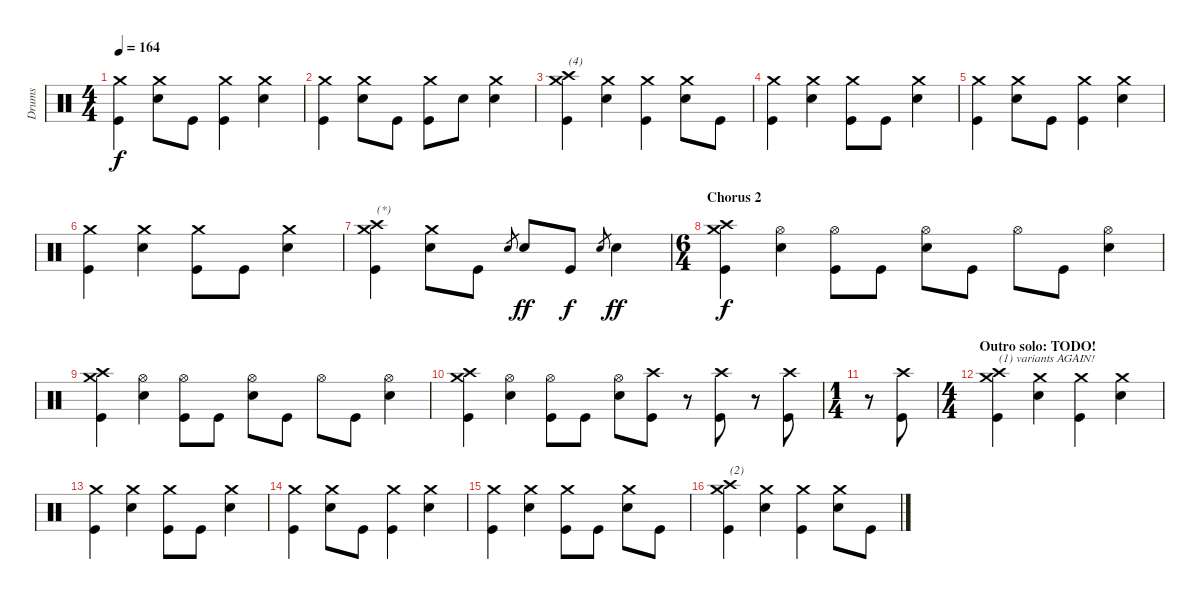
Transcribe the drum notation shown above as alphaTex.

\track ("Drums" "Drums") {instrument percussion}
\staff {score}
\articulation defaults
\ts (4 4)
\tempo 164
\clef neutral
\ks c
("Crash medium (hit)" "Kick (hit)").4{dy f} ("Crash medium (hit)" "Electric Snare (hit)").8 "Kick (hit)".8 ("Crash medium (hit)" "Kick (hit)").4 ("Crash medium (hit)" "Electric Snare (hit)").4 |
("Crash medium (hit)" "Kick (hit)").4 ("Crash medium (hit)" "Electric Snare (hit)").8 "Kick (hit)".8 ("Crash medium (hit)" "Kick (hit)").8 "Electric Snare (hit)".8 ("Crash medium (hit)" "Electric Snare (hit)").4 |
("Crash medium (hit)" "Crash high (hit)" "Kick (hit)").4{txt "(4)"} ("Crash medium (hit)" "Electric Snare (hit)").4 ("Crash medium (hit)" "Kick (hit)").4 ("Crash medium (hit)" "Electric Snare (hit)").8 "Kick (hit)".8 |
("Crash medium (hit)" "Kick (hit)").4 ("Crash medium (hit)" "Electric Snare (hit)").4 ("Crash medium (hit)" "Kick (hit)").8 "Kick (hit)".8 ("Crash medium (hit)" "Electric Snare (hit)").4 |
("Crash medium (hit)" "Kick (hit)").4 ("Crash medium (hit)" "Electric Snare (hit)").8 "Kick (hit)".8 ("Crash medium (hit)" "Kick (hit)").4 ("Crash medium (hit)" "Electric Snare (hit)").4 |
("Crash medium (hit)" "Kick (hit)").4 ("Crash medium (hit)" "Electric Snare (hit)").4 ("Crash medium (hit)" "Kick (hit)").8 "Kick (hit)".8 ("Crash medium (hit)" "Electric Snare (hit)").4 |
("Crash medium (hit)" "Crash high (hit)" "Kick (hit)").4{txt "(*)"} ("Crash medium (hit)" "Electric Snare (hit)").8 "Kick (hit)".8 "Electric Snare (hit)".8{gr} "Electric Snare (hit)".8{dy ff} "Kick (hit)".8{dy f} "Electric Snare (hit)".8{gr} "Electric Snare (hit)".4{dy ff} |
\ts (6 4)
\section ("" "Chorus 2")
("Crash medium (hit)" "Crash high (hit)" "Kick (hit)").4{dy f} ("Hi-Hat (open)" "Electric Snare (hit)").4 ("Hi-Hat (open)" "Kick (hit)").8 "Kick (hit)".8 ("Hi-Hat (open)" "Electric Snare (hit)").8 "Kick (hit)".8 "Hi-Hat (open)".8 "Kick (hit)".8 ("Hi-Hat (open)" "Electric Snare (hit)").4 |
("Crash medium (hit)" "Crash high (hit)" "Kick (hit)").4 ("Hi-Hat (open)" "Electric Snare (hit)").4 ("Hi-Hat (open)" "Kick (hit)").8 "Kick (hit)".8 ("Hi-Hat (open)" "Electric Snare (hit)").8 "Kick (hit)".8 "Hi-Hat (open)".8 "Kick (hit)".8 ("Hi-Hat (open)" "Electric Snare (hit)").4 |
("Crash medium (hit)" "Crash high (hit)" "Kick (hit)").4 ("Hi-Hat (open)" "Electric Snare (hit)").4 ("Hi-Hat (open)" "Kick (hit)").8 "Kick (hit)".8 ("Hi-Hat (open)" "Electric Snare (hit)").8 ("Crash high (hit)" "Kick (hit)").8 r.8 ("Crash high (hit)" "Kick (hit)").8 r.8 ("Crash high (hit)" "Kick (hit)").8 |
\ts (1 4)
r.8 ("Crash high (hit)" "Kick (hit)").8 |
\ts (4 4)
\section ("" "Outro solo: TODO!")
("Crash medium (hit)" "Crash high (hit)" "Kick (hit)").4{txt "(1) variants AGAIN!"} ("Crash medium (hit)" "Electric Snare (hit)").4 ("Crash medium (hit)" "Kick (hit)").4 ("Crash medium (hit)" "Electric Snare (hit)").4 |
("Crash medium (hit)" "Kick (hit)").4 ("Crash medium (hit)" "Electric Snare (hit)").4 ("Crash medium (hit)" "Kick (hit)").8 "Kick (hit)".8 ("Crash medium (hit)" "Electric Snare (hit)").4 |
("Crash medium (hit)" "Kick (hit)").4 ("Crash medium (hit)" "Electric Snare (hit)").8 "Kick (hit)".8 ("Crash medium (hit)" "Kick (hit)").4 ("Crash medium (hit)" "Electric Snare (hit)").4 |
("Crash medium (hit)" "Kick (hit)").4 ("Crash medium (hit)" "Electric Snare (hit)").4 ("Crash medium (hit)" "Kick (hit)").8 "Kick (hit)".8 ("Crash medium (hit)" "Electric Snare (hit)").8 "Kick (hit)".8 |
("Crash medium (hit)" "Crash high (hit)" "Kick (hit)").4{txt "(2)"} ("Crash medium (hit)" "Electric Snare (hit)").4 ("Crash medium (hit)" "Kick (hit)").4 ("Crash medium (hit)" "Electric Snare (hit)").8 "Kick (hit)".8
